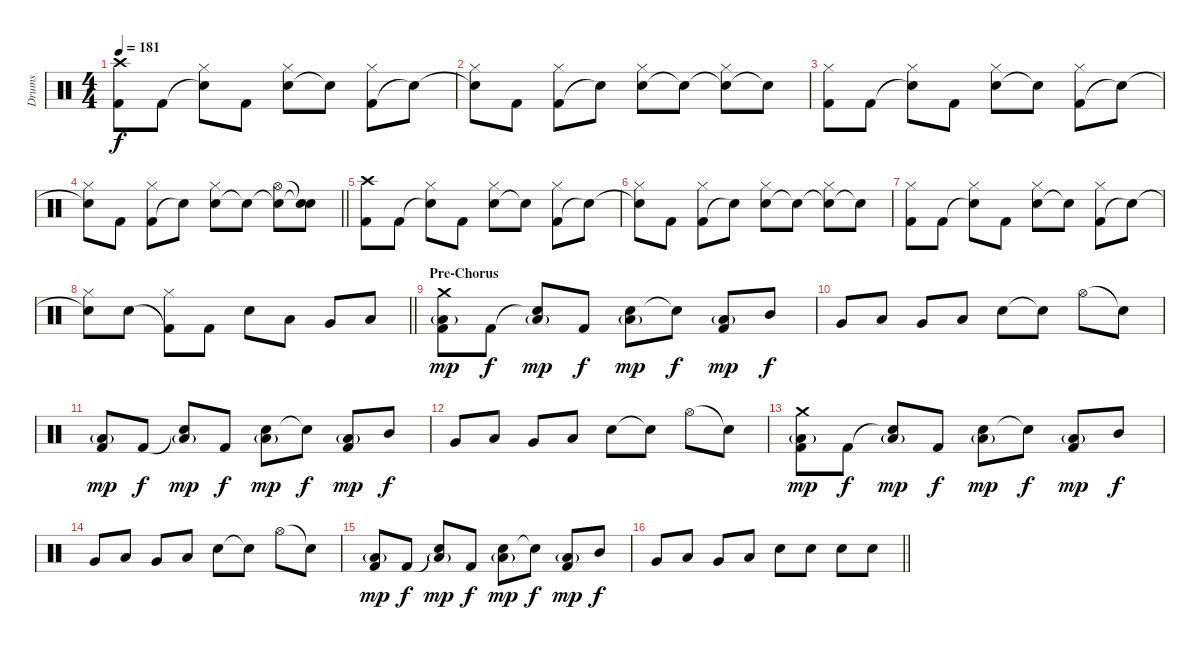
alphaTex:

\track ("Drums" "Drums") {instrument percussion}
\staff {score}
\articulation defaults
\ts (4 4)
\tempo 181
\clef neutral
\ks c
("Kick (hit) 2" "Crash high (hit)").8{dy f} "Kick (hit) 2".8 ("Snare (hit)"{t} "Hi-Hat (closed)").8 "Kick (hit) 2".8 ("Electric Snare (hit)" "Hi-Hat (closed)").8 "Snare (hit)"{t}.8 ("Kick (hit) 2" "Hi-Hat (closed)").8 "Snare (hit)"{t}.8 |
("Snare (hit)"{t} "Hi-Hat (closed)").8 "Kick (hit) 2".8 ("Kick (hit) 2" "Hi-Hat (closed)").8 "Snare (hit)"{t}.8 ("Electric Snare (hit)" "Hi-Hat (closed)").8 "Snare (hit)"{t}.8 ("Snare (hit)"{t} "Hi-Hat (closed)").8 "Snare (hit)"{t}.8 |
("Kick (hit) 2" "Hi-Hat (closed)").8 "Kick (hit) 2".8 ("Snare (hit)"{t} "Hi-Hat (closed)").8 "Kick (hit) 2".8 ("Electric Snare (hit)" "Hi-Hat (closed)").8 "Snare (hit)"{t}.8 ("Kick (hit) 2" "Hi-Hat (closed)").8 "Snare (hit)"{t}.8 |
\barLineRight lightlight
("Snare (hit)"{t} "Hi-Hat (closed)").8 "Kick (hit) 2".8 ("Kick (hit) 2" "Hi-Hat (closed)").8 "Snare (hit)"{t}.8 ("Electric Snare (hit)" "Hi-Hat (closed)").8 "Snare (hit)"{t}.8 ("Snare (hit)"{t} "Hi-Hat (open)").8 ("Snare (hit)"{t} "Snare (hit)"{t}).8 |
("Kick (hit) 2" "Crash high (hit)").8 "Kick (hit) 2".8 ("Snare (hit)"{t} "Hi-Hat (closed)").8 "Kick (hit) 2".8 ("Electric Snare (hit)" "Hi-Hat (closed)").8 "Snare (hit)"{t}.8 ("Kick (hit) 2" "Hi-Hat (closed)").8 "Snare (hit)"{t}.8 |
("Snare (hit)"{t} "Hi-Hat (closed)").8 "Kick (hit) 2".8 ("Kick (hit) 2" "Hi-Hat (closed)").8 "Snare (hit)"{t}.8 ("Electric Snare (hit)" "Hi-Hat (closed)").8 "Snare (hit)"{t}.8 ("Snare (hit)"{t} "Hi-Hat (closed)").8 "Snare (hit)"{t}.8 |
("Kick (hit) 2" "Hi-Hat (closed)").8 "Kick (hit) 2".8 ("Snare (hit)"{t} "Hi-Hat (closed)").8 "Kick (hit) 2".8 ("Electric Snare (hit)" "Hi-Hat (closed)").8 "Snare (hit)"{t}.8 ("Kick (hit) 2" "Hi-Hat (closed)").8 "Snare (hit)"{t}.8 |
\barLineRight lightlight
("Snare (hit)"{t} "Hi-Hat (closed)").8 "Electric Snare (hit)".8 ("Kick (hit) 2"{t} "Hi-Hat (closed)").8 "Kick (hit) 2".8 "Electric Snare (hit)".8 "Low Tom (hit)".8 "Very Low Tom (hit)".8 "Low Floor Tom (hit)".8 |
\section ("" "Pre-Chorus")
("Kick (hit) 2" "Low Floor Tom (hit)"{g} "Crash medium (hit)").8{dy mp} "Kick (hit) 2".8{dy f} ("Snare (hit)"{t} "Low Floor Tom (hit)"{g}).8{dy mp} "Kick (hit) 2".8{dy f} ("Electric Snare (hit)" "Low Floor Tom (hit)"{g}).8{dy mp} "Snare (hit)"{t}.8{dy f} ("Kick (hit) 2" "Low Floor Tom (hit)"{g}).8{dy mp} "Mid Tom (hit)".8{dy f} |
"Very Low Tom (hit)".8 "Low Tom (hit)".8 "Very Low Tom (hit)".8 "Low Floor Tom (hit)".8 "Electric Snare (hit)".8 "Snare (hit)"{t}.8 "Hi-Hat (open)".8 "Snare (hit)"{t}.8 |
("Kick (hit) 2" "Low Floor Tom (hit)"{g}).8{dy mp} "Kick (hit) 2".8{dy f} ("Snare (hit)"{t} "Low Floor Tom (hit)"{g}).8{dy mp} "Kick (hit) 2".8{dy f} ("Electric Snare (hit)" "Low Floor Tom (hit)"{g}).8{dy mp} "Snare (hit)"{t}.8{dy f} ("Kick (hit) 2" "Low Floor Tom (hit)"{g}).8{dy mp} "Mid Tom (hit)".8{dy f} |
"Very Low Tom (hit)".8 "Low Tom (hit)".8 "Very Low Tom (hit)".8 "Low Floor Tom (hit)".8 "Electric Snare (hit)".8 "Snare (hit)"{t}.8 "Hi-Hat (open)".8 "Snare (hit)"{t}.8 |
("Kick (hit) 2" "Low Floor Tom (hit)"{g} "Crash medium (hit)").8{dy mp} "Kick (hit) 2".8{dy f} ("Snare (hit)"{t} "Low Floor Tom (hit)"{g}).8{dy mp} "Kick (hit) 2".8{dy f} ("Electric Snare (hit)" "Low Floor Tom (hit)"{g}).8{dy mp} "Snare (hit)"{t}.8{dy f} ("Kick (hit) 2" "Low Floor Tom (hit)"{g}).8{dy mp} "Mid Tom (hit)".8{dy f} |
"Very Low Tom (hit)".8 "Low Tom (hit)".8 "Very Low Tom (hit)".8 "Low Floor Tom (hit)".8 "Electric Snare (hit)".8 "Snare (hit)"{t}.8 "Hi-Hat (open)".8 "Snare (hit)"{t}.8 |
("Kick (hit) 2" "Low Floor Tom (hit)"{g}).8{dy mp} "Kick (hit) 2".8{dy f} ("Snare (hit)"{t} "Low Floor Tom (hit)"{g}).8{dy mp} "Kick (hit) 2".8{dy f} ("Electric Snare (hit)" "Low Floor Tom (hit)"{g}).8{dy mp} "Snare (hit)"{t}.8{dy f} ("Kick (hit) 2" "Low Floor Tom (hit)"{g}).8{dy mp} "Mid Tom (hit)".8{dy f} |
\barLineRight lightlight "Very Low Tom (hit)".8 "Low Tom (hit)".8 "Very Low Tom (hit)".8 "Low Floor Tom (hit)".8 "Electric Snare (hit)".8 "Electric Snare (hit)".8 "Electric Snare (hit)".8 "Electric Snare (hit)".8
